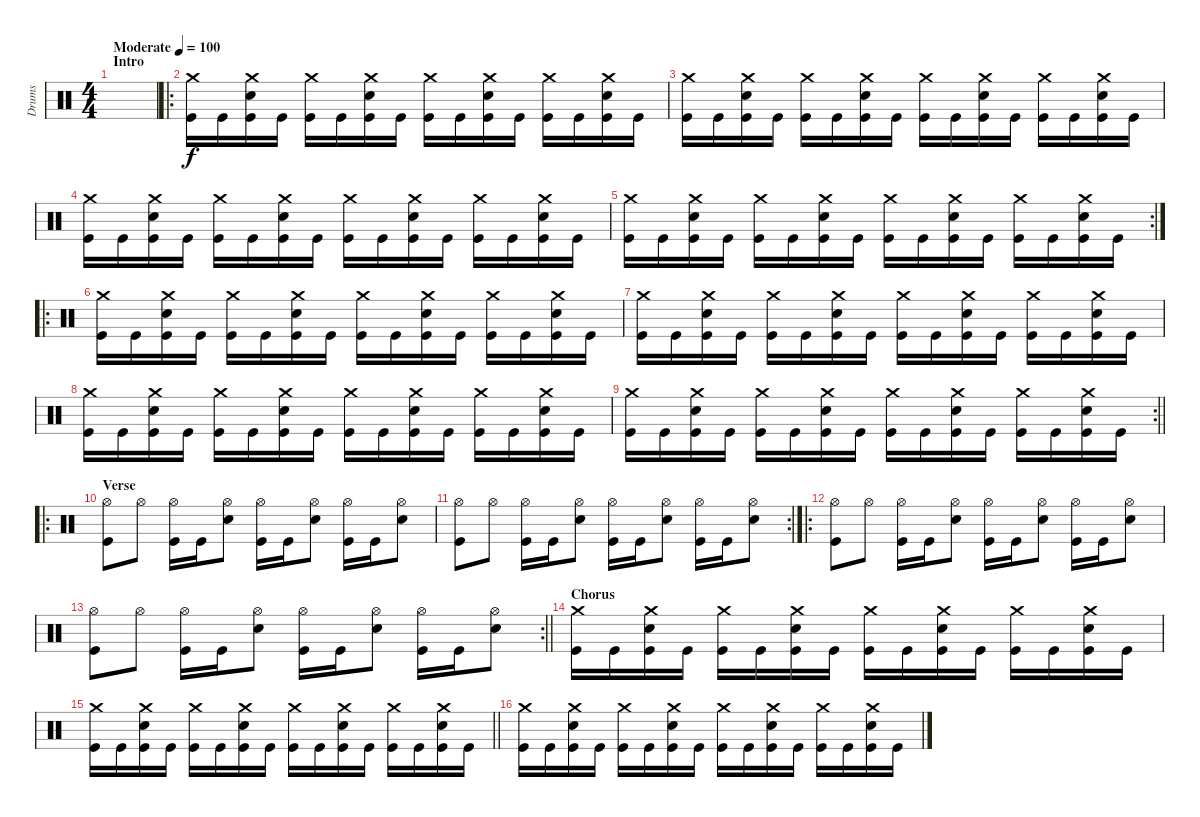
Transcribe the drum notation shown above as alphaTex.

\track ("Drums" "Drums") {instrument percussion}
\staff {score}
\articulation defaults
\ts (4 4)
\section ("" "Intro")
\tempo (100 "Moderate")
\clef neutral
\ks c
|
\ro
("Crash medium (hit)" "Kick (hit)").16 "Kick (hit)".16 ("Crash medium (hit)" "Snare (hit) 2" "Kick (hit)").16 "Kick (hit)".16 ("Crash medium (hit)" "Kick (hit)").16 "Kick (hit)".16 ("Crash medium (hit)" "Snare (hit) 2" "Kick (hit)").16 "Kick (hit)".16 ("Crash medium (hit)" "Kick (hit)").16 "Kick (hit)".16 ("Crash medium (hit)" "Snare (hit) 2" "Kick (hit)").16 "Kick (hit)".16 ("Crash medium (hit)" "Kick (hit)").16 "Kick (hit)".16 ("Crash medium (hit)" "Snare (hit) 2" "Kick (hit)").16 "Kick (hit)".16 |
("Crash medium (hit)" "Kick (hit)").16 "Kick (hit)".16 ("Crash medium (hit)" "Snare (hit) 2" "Kick (hit)").16 "Kick (hit)".16 ("Crash medium (hit)" "Kick (hit)").16 "Kick (hit)".16 ("Crash medium (hit)" "Snare (hit) 2" "Kick (hit)").16 "Kick (hit)".16 ("Crash medium (hit)" "Kick (hit)").16 "Kick (hit)".16 ("Crash medium (hit)" "Snare (hit) 2" "Kick (hit)").16 "Kick (hit)".16 ("Crash medium (hit)" "Kick (hit)").16 "Kick (hit)".16 ("Crash medium (hit)" "Snare (hit) 2" "Kick (hit)").16 "Kick (hit)".16 |
("Crash medium (hit)" "Kick (hit)").16 "Kick (hit)".16 ("Crash medium (hit)" "Snare (hit) 2" "Kick (hit)").16 "Kick (hit)".16 ("Crash medium (hit)" "Kick (hit)").16 "Kick (hit)".16 ("Crash medium (hit)" "Snare (hit) 2" "Kick (hit)").16 "Kick (hit)".16 ("Crash medium (hit)" "Kick (hit)").16 "Kick (hit)".16 ("Crash medium (hit)" "Snare (hit) 2" "Kick (hit)").16 "Kick (hit)".16 ("Crash medium (hit)" "Kick (hit)").16 "Kick (hit)".16 ("Crash medium (hit)" "Snare (hit) 2" "Kick (hit)").16 "Kick (hit)".16 |
\rc 2
("Crash medium (hit)" "Kick (hit)").16 "Kick (hit)".16 ("Crash medium (hit)" "Snare (hit) 2" "Kick (hit)").16 "Kick (hit)".16 ("Crash medium (hit)" "Kick (hit)").16 "Kick (hit)".16 ("Crash medium (hit)" "Snare (hit) 2" "Kick (hit)").16 "Kick (hit)".16 ("Crash medium (hit)" "Kick (hit)").16 "Kick (hit)".16 ("Crash medium (hit)" "Snare (hit) 2" "Kick (hit)").16 "Kick (hit)".16 ("Crash medium (hit)" "Kick (hit)").16 "Kick (hit)".16 ("Crash medium (hit)" "Snare (hit) 2" "Kick (hit)").16 "Kick (hit)".16 |
\ro
("Crash medium (hit)" "Kick (hit)").16 "Kick (hit)".16 ("Crash medium (hit)" "Snare (hit) 2" "Kick (hit)").16 "Kick (hit)".16 ("Crash medium (hit)" "Kick (hit)").16 "Kick (hit)".16 ("Crash medium (hit)" "Snare (hit) 2" "Kick (hit)").16 "Kick (hit)".16 ("Crash medium (hit)" "Kick (hit)").16 "Kick (hit)".16 ("Crash medium (hit)" "Snare (hit) 2" "Kick (hit)").16 "Kick (hit)".16 ("Crash medium (hit)" "Kick (hit)").16 "Kick (hit)".16 ("Crash medium (hit)" "Snare (hit) 2" "Kick (hit)").16 "Kick (hit)".16 |
("Crash medium (hit)" "Kick (hit)").16 "Kick (hit)".16 ("Crash medium (hit)" "Snare (hit) 2" "Kick (hit)").16 "Kick (hit)".16 ("Crash medium (hit)" "Kick (hit)").16 "Kick (hit)".16 ("Crash medium (hit)" "Snare (hit) 2" "Kick (hit)").16 "Kick (hit)".16 ("Crash medium (hit)" "Kick (hit)").16 "Kick (hit)".16 ("Crash medium (hit)" "Snare (hit) 2" "Kick (hit)").16 "Kick (hit)".16 ("Crash medium (hit)" "Kick (hit)").16 "Kick (hit)".16 ("Crash medium (hit)" "Snare (hit) 2" "Kick (hit)").16 "Kick (hit)".16 |
("Crash medium (hit)" "Kick (hit)").16 "Kick (hit)".16 ("Crash medium (hit)" "Snare (hit) 2" "Kick (hit)").16 "Kick (hit)".16 ("Crash medium (hit)" "Kick (hit)").16 "Kick (hit)".16 ("Crash medium (hit)" "Snare (hit) 2" "Kick (hit)").16 "Kick (hit)".16 ("Crash medium (hit)" "Kick (hit)").16 "Kick (hit)".16 ("Crash medium (hit)" "Snare (hit) 2" "Kick (hit)").16 "Kick (hit)".16 ("Crash medium (hit)" "Kick (hit)").16 "Kick (hit)".16 ("Crash medium (hit)" "Snare (hit) 2" "Kick (hit)").16 "Kick (hit)".16 |
\rc 2
\barLineRight lightlight
("Crash medium (hit)" "Kick (hit)").16 "Kick (hit)".16 ("Crash medium (hit)" "Snare (hit) 2" "Kick (hit)").16 "Kick (hit)".16 ("Crash medium (hit)" "Kick (hit)").16 "Kick (hit)".16 ("Crash medium (hit)" "Snare (hit) 2" "Kick (hit)").16 "Kick (hit)".16 ("Crash medium (hit)" "Kick (hit)").16 "Kick (hit)".16 ("Crash medium (hit)" "Snare (hit) 2" "Kick (hit)").16 "Kick (hit)".16 ("Crash medium (hit)" "Kick (hit)").16 "Kick (hit)".16 ("Crash medium (hit)" "Snare (hit) 2" "Kick (hit)").16 "Kick (hit)".16 |
\ro
\section ("" "Verse")
("Hi-Hat (open)" "Kick (hit)").8 "Hi-Hat (open)".8 ("Hi-Hat (open)" "Kick (hit)").16 "Kick (hit)".16 ("Hi-Hat (open)" "Snare (hit) 2").8 ("Hi-Hat (open)" "Kick (hit)").16 "Kick (hit)".16 ("Hi-Hat (open)" "Snare (hit) 2").8 ("Hi-Hat (open)" "Kick (hit)").16 "Kick (hit)".16 ("Hi-Hat (open)" "Snare (hit) 2").8 |
\rc 2
("Hi-Hat (open)" "Kick (hit)").8 "Hi-Hat (open)".8 ("Hi-Hat (open)" "Kick (hit)").16 "Kick (hit)".16 ("Hi-Hat (open)" "Snare (hit) 2").8 ("Hi-Hat (open)" "Kick (hit)").16 "Kick (hit)".16 ("Hi-Hat (open)" "Snare (hit) 2").8 ("Hi-Hat (open)" "Kick (hit)").16 "Kick (hit)".16 ("Hi-Hat (open)" "Snare (hit) 2").8 |
\ro
("Hi-Hat (open)" "Kick (hit)").8 "Hi-Hat (open)".8 ("Hi-Hat (open)" "Kick (hit)").16 "Kick (hit)".16 ("Hi-Hat (open)" "Snare (hit) 2").8 ("Hi-Hat (open)" "Kick (hit)").16 "Kick (hit)".16 ("Hi-Hat (open)" "Snare (hit) 2").8 ("Hi-Hat (open)" "Kick (hit)").16 "Kick (hit)".16 ("Hi-Hat (open)" "Snare (hit) 2").8 |
\rc 2
\barLineRight lightlight
("Hi-Hat (open)" "Kick (hit)").8 "Hi-Hat (open)".8 ("Hi-Hat (open)" "Kick (hit)").16 "Kick (hit)".16 ("Hi-Hat (open)" "Snare (hit) 2").8 ("Hi-Hat (open)" "Kick (hit)").16 "Kick (hit)".16 ("Hi-Hat (open)" "Snare (hit) 2").8 ("Hi-Hat (open)" "Kick (hit)").16 "Kick (hit)".16 ("Hi-Hat (open)" "Snare (hit) 2").8 |
\section ("" "Chorus")
("Crash medium (hit)" "Kick (hit)").16 "Kick (hit)".16 ("Crash medium (hit)" "Snare (hit) 2" "Kick (hit)").16 "Kick (hit)".16 ("Crash medium (hit)" "Kick (hit)").16 "Kick (hit)".16 ("Crash medium (hit)" "Snare (hit) 2" "Kick (hit)").16 "Kick (hit)".16 ("Crash medium (hit)" "Kick (hit)").16 "Kick (hit)".16 ("Crash medium (hit)" "Snare (hit) 2" "Kick (hit)").16 "Kick (hit)".16 ("Crash medium (hit)" "Kick (hit)").16 "Kick (hit)".16 ("Crash medium (hit)" "Snare (hit) 2" "Kick (hit)").16 "Kick (hit)".16 |
\barLineRight lightlight
("Crash medium (hit)" "Kick (hit)").16 "Kick (hit)".16 ("Crash medium (hit)" "Snare (hit) 2" "Kick (hit)").16 "Kick (hit)".16 ("Crash medium (hit)" "Kick (hit)").16 "Kick (hit)".16 ("Crash medium (hit)" "Snare (hit) 2" "Kick (hit)").16 "Kick (hit)".16 ("Crash medium (hit)" "Kick (hit)").16 "Kick (hit)".16 ("Crash medium (hit)" "Snare (hit) 2" "Kick (hit)").16 "Kick (hit)".16 ("Crash medium (hit)" "Kick (hit)").16 "Kick (hit)".16 ("Crash medium (hit)" "Snare (hit) 2" "Kick (hit)").16 "Kick (hit)".16 |
("Crash medium (hit)" "Kick (hit)").16 "Kick (hit)".16 ("Crash medium (hit)" "Snare (hit) 2" "Kick (hit)").16 "Kick (hit)".16 ("Crash medium (hit)" "Kick (hit)").16 "Kick (hit)".16 ("Crash medium (hit)" "Snare (hit) 2" "Kick (hit)").16 "Kick (hit)".16 ("Crash medium (hit)" "Kick (hit)").16 "Kick (hit)".16 ("Crash medium (hit)" "Snare (hit) 2" "Kick (hit)").16 "Kick (hit)".16 ("Crash medium (hit)" "Kick (hit)").16 "Kick (hit)".16 ("Crash medium (hit)" "Snare (hit) 2" "Kick (hit)").16 "Kick (hit)".16
